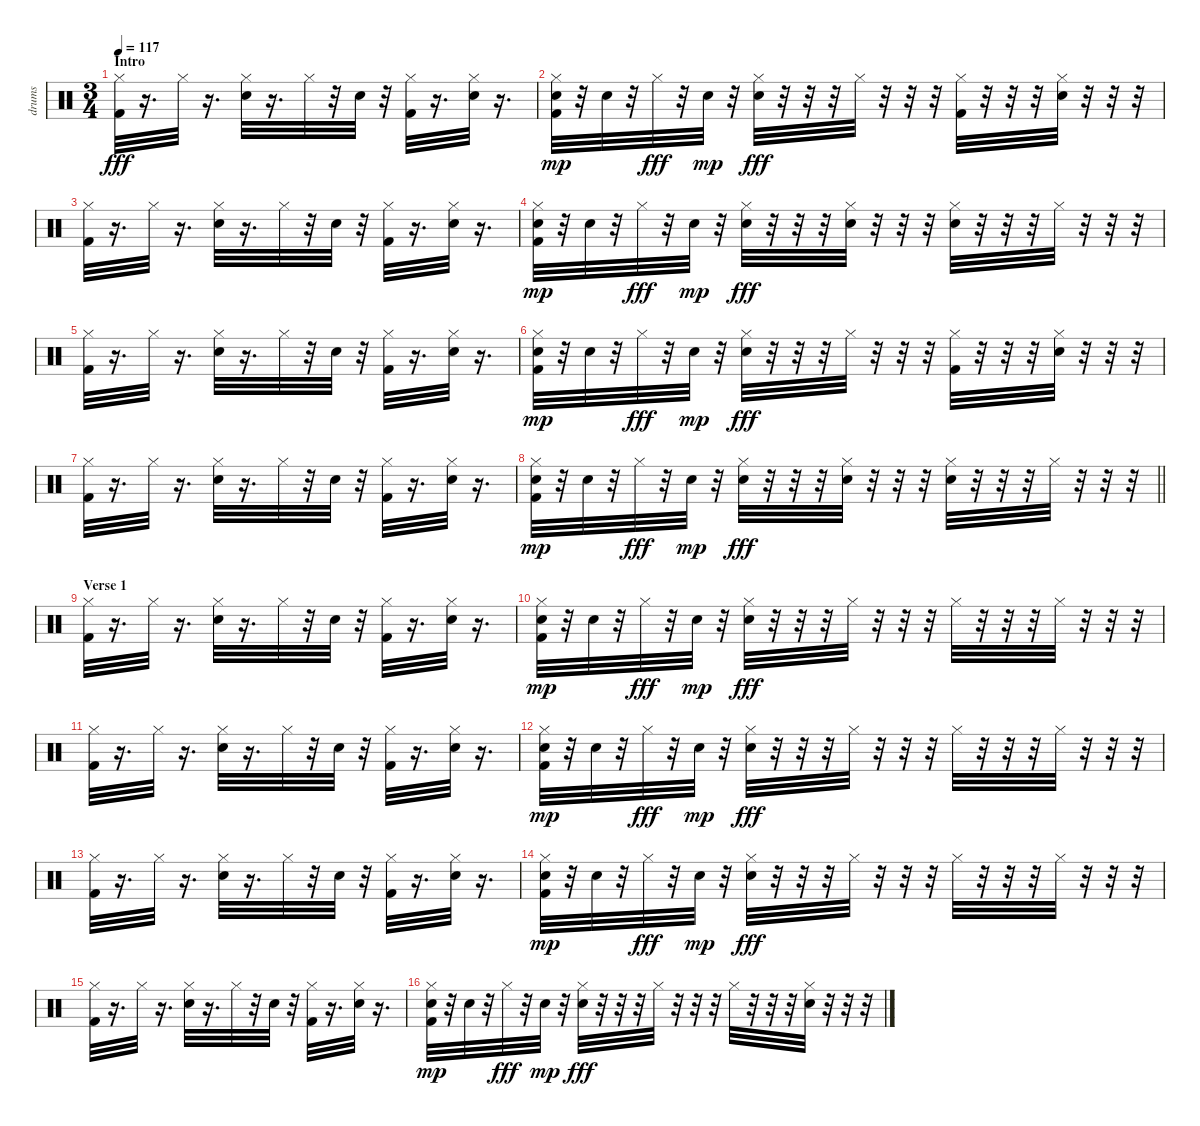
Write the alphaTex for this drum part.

\track ("drums" "drums") {instrument percussion}
\staff {score}
\articulation defaults
\ts (3 4)
\section ("" "Intro")
\tempo 117
\clef neutral
\ks c
("Hi-Hat (closed)" "Kick (hit) 2").32{dy fff} r.16{d} "Hi-Hat (closed)".32 r.16{d} ("Electric Snare (hit)" "Hi-Hat (closed)").32 r.16{d} "Hi-Hat (closed)".32 r.32 "Electric Snare (hit)".32 r.32 ("Hi-Hat (closed)" "Kick (hit) 2").32 r.16{d} ("Electric Snare (hit)" "Hi-Hat (closed)").32 r.16{d} |
("Hi-Hat (closed)" "Kick (hit) 2" "Electric Snare (hit)").32{dy mp} r.32 "Electric Snare (hit)".32 r.32 "Hi-Hat (closed)".32{dy fff} r.32 "Electric Snare (hit)".32{dy mp} r.32 ("Electric Snare (hit)" "Hi-Hat (closed)").32{dy fff} r.32 r.32 r.32 "Hi-Hat (closed)".32 r.32 r.32 r.32 ("Hi-Hat (closed)" "Kick (hit) 2").32 r.32 r.32 r.32 ("Electric Snare (hit)" "Hi-Hat (closed)").32 r.32 r.32 r.32 |
("Hi-Hat (closed)" "Kick (hit) 2").32 r.16{d} "Hi-Hat (closed)".32 r.16{d} ("Electric Snare (hit)" "Hi-Hat (closed)").32 r.16{d} "Hi-Hat (closed)".32 r.32 "Electric Snare (hit)".32 r.32 ("Hi-Hat (closed)" "Kick (hit) 2").32 r.16{d} ("Electric Snare (hit)" "Hi-Hat (closed)").32 r.16{d} |
("Hi-Hat (closed)" "Kick (hit) 2" "Electric Snare (hit)").32{dy mp} r.32 "Electric Snare (hit)".32 r.32 "Hi-Hat (closed)".32{dy fff} r.32 "Electric Snare (hit)".32{dy mp} r.32 ("Electric Snare (hit)" "Hi-Hat (closed)").32{dy fff} r.32 r.32 r.32 ("Hi-Hat (closed)" "Electric Snare (hit)").32 r.32 r.32 r.32 ("Hi-Hat (closed)" "Electric Snare (hit)").32 r.32 r.32 r.32 "Hi-Hat (closed)".32 r.32 r.32 r.32 |
("Hi-Hat (closed)" "Kick (hit) 2").32 r.16{d} "Hi-Hat (closed)".32 r.16{d} ("Electric Snare (hit)" "Hi-Hat (closed)").32 r.16{d} "Hi-Hat (closed)".32 r.32 "Electric Snare (hit)".32 r.32 ("Hi-Hat (closed)" "Kick (hit) 2").32 r.16{d} ("Electric Snare (hit)" "Hi-Hat (closed)").32 r.16{d} |
("Hi-Hat (closed)" "Kick (hit) 2" "Electric Snare (hit)").32{dy mp} r.32 "Electric Snare (hit)".32 r.32 "Hi-Hat (closed)".32{dy fff} r.32 "Electric Snare (hit)".32{dy mp} r.32 ("Electric Snare (hit)" "Hi-Hat (closed)").32{dy fff} r.32 r.32 r.32 "Hi-Hat (closed)".32 r.32 r.32 r.32 ("Hi-Hat (closed)" "Kick (hit) 2").32 r.32 r.32 r.32 ("Electric Snare (hit)" "Hi-Hat (closed)").32 r.32 r.32 r.32 |
("Hi-Hat (closed)" "Kick (hit) 2").32 r.16{d} "Hi-Hat (closed)".32 r.16{d} ("Electric Snare (hit)" "Hi-Hat (closed)").32 r.16{d} "Hi-Hat (closed)".32 r.32 "Electric Snare (hit)".32 r.32 ("Hi-Hat (closed)" "Kick (hit) 2").32 r.16{d} ("Electric Snare (hit)" "Hi-Hat (closed)").32 r.16{d} |
\barLineRight lightlight
("Hi-Hat (closed)" "Kick (hit) 2" "Electric Snare (hit)").32{dy mp} r.32 "Electric Snare (hit)".32 r.32 "Hi-Hat (closed)".32{dy fff} r.32 "Electric Snare (hit)".32{dy mp} r.32 ("Electric Snare (hit)" "Hi-Hat (closed)").32{dy fff} r.32 r.32 r.32 ("Hi-Hat (closed)" "Electric Snare (hit)").32 r.32 r.32 r.32 ("Hi-Hat (closed)" "Electric Snare (hit)").32 r.32 r.32 r.32 "Hi-Hat (closed)".32 r.32 r.32 r.32 |
\section ("" "Verse 1")
("Hi-Hat (closed)" "Kick (hit) 2").32 r.16{d} "Hi-Hat (closed)".32 r.16{d} ("Electric Snare (hit)" "Hi-Hat (closed)").32 r.16{d} "Hi-Hat (closed)".32 r.32 "Electric Snare (hit)".32 r.32 ("Hi-Hat (closed)" "Kick (hit) 2").32 r.16{d} ("Electric Snare (hit)" "Hi-Hat (closed)").32 r.16{d} |
("Hi-Hat (closed)" "Kick (hit) 2" "Electric Snare (hit)").32{dy mp} r.32 "Electric Snare (hit)".32 r.32 "Hi-Hat (closed)".32{dy fff} r.32 "Electric Snare (hit)".32{dy mp} r.32 ("Electric Snare (hit)" "Hi-Hat (closed)").32{dy fff} r.32 r.32 r.32 "Hi-Hat (closed)".32 r.32 r.32 r.32 "Hi-Hat (closed)".32 r.32 r.32 r.32 "Hi-Hat (closed)".32 r.32 r.32 r.32 |
("Hi-Hat (closed)" "Kick (hit) 2").32 r.16{d} "Hi-Hat (closed)".32 r.16{d} ("Electric Snare (hit)" "Hi-Hat (closed)").32 r.16{d} "Hi-Hat (closed)".32 r.32 "Electric Snare (hit)".32 r.32 ("Hi-Hat (closed)" "Kick (hit) 2").32 r.16{d} ("Electric Snare (hit)" "Hi-Hat (closed)").32 r.16{d} |
("Hi-Hat (closed)" "Kick (hit) 2" "Electric Snare (hit)").32{dy mp} r.32 "Electric Snare (hit)".32 r.32 "Hi-Hat (closed)".32{dy fff} r.32 "Electric Snare (hit)".32{dy mp} r.32 ("Electric Snare (hit)" "Hi-Hat (closed)").32{dy fff} r.32 r.32 r.32 "Hi-Hat (closed)".32 r.32 r.32 r.32 "Hi-Hat (closed)".32 r.32 r.32 r.32 "Hi-Hat (closed)".32 r.32 r.32 r.32 |
("Hi-Hat (closed)" "Kick (hit) 2").32 r.16{d} "Hi-Hat (closed)".32 r.16{d} ("Electric Snare (hit)" "Hi-Hat (closed)").32 r.16{d} "Hi-Hat (closed)".32 r.32 "Electric Snare (hit)".32 r.32 ("Hi-Hat (closed)" "Kick (hit) 2").32 r.16{d} ("Electric Snare (hit)" "Hi-Hat (closed)").32 r.16{d} |
("Hi-Hat (closed)" "Kick (hit) 2" "Electric Snare (hit)").32{dy mp} r.32 "Electric Snare (hit)".32 r.32 "Hi-Hat (closed)".32{dy fff} r.32 "Electric Snare (hit)".32{dy mp} r.32 ("Electric Snare (hit)" "Hi-Hat (closed)").32{dy fff} r.32 r.32 r.32 "Hi-Hat (closed)".32 r.32 r.32 r.32 "Hi-Hat (closed)".32 r.32 r.32 r.32 "Hi-Hat (closed)".32 r.32 r.32 r.32 |
("Hi-Hat (closed)" "Kick (hit) 2").32 r.16{d} "Hi-Hat (closed)".32 r.16{d} ("Electric Snare (hit)" "Hi-Hat (closed)").32 r.16{d} "Hi-Hat (closed)".32 r.32 "Electric Snare (hit)".32 r.32 ("Hi-Hat (closed)" "Kick (hit) 2").32 r.16{d} ("Electric Snare (hit)" "Hi-Hat (closed)").32 r.16{d} |
("Hi-Hat (closed)" "Kick (hit) 2" "Electric Snare (hit)").32{dy mp} r.32 "Electric Snare (hit)".32 r.32 "Hi-Hat (closed)".32{dy fff} r.32 "Electric Snare (hit)".32{dy mp} r.32 ("Electric Snare (hit)" "Hi-Hat (closed)").32{dy fff} r.32 r.32 r.32 "Hi-Hat (closed)".32 r.32 r.32 r.32 "Hi-Hat (closed)".32 r.32 r.32 r.32 ("Electric Snare (hit)" "Hi-Hat (closed)").32 r.32 r.32 r.32
